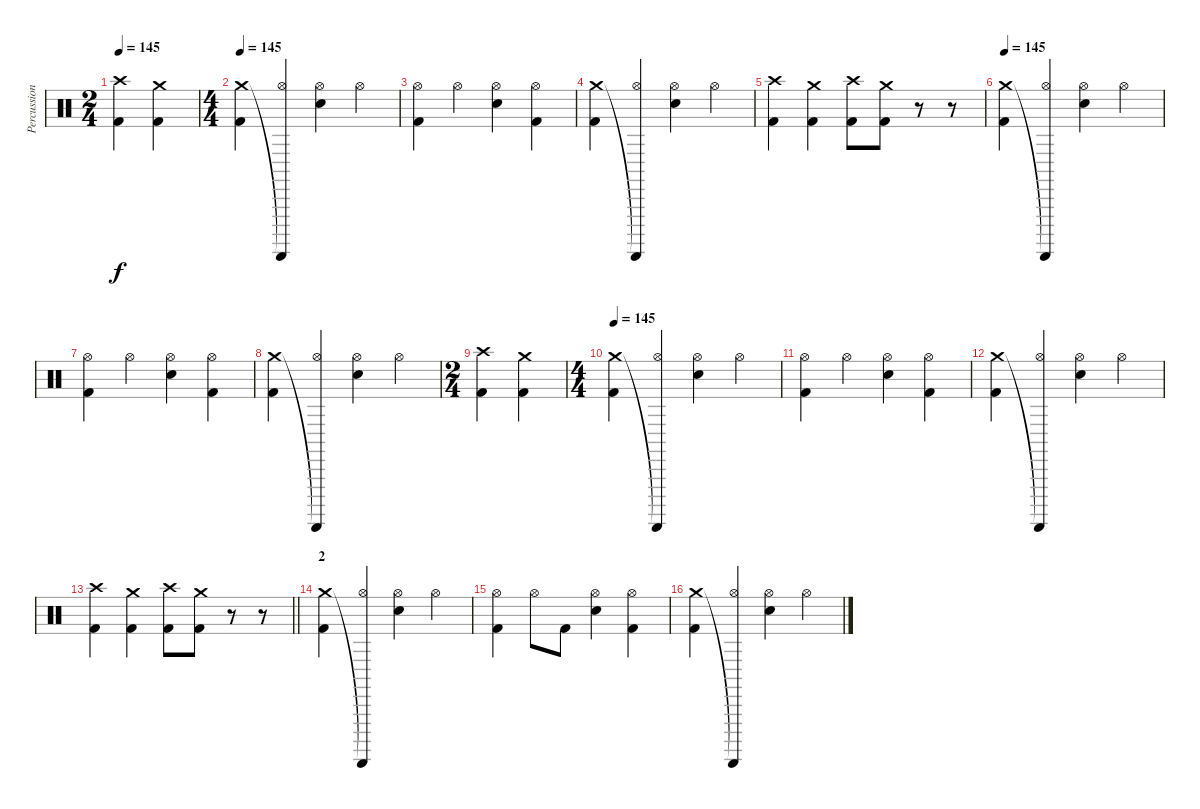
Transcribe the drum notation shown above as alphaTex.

\track ("Percussion" "Percussion") {instrument percussion}
\staff {score}
\articulation defaults
\ts (2 4)
\tempo 145
\clef neutral
\ks c
("Kick (hit) 2" "Crash high (hit)").4{dy f} ("Kick (hit) 2" "Crash medium (hit)").4 |
\ts (4 4)
\tempo 145
("Crash medium (hit)" "Kick (hit) 2").4 ("Guiro (scrap-return)"{t} "Hi-Hat (open)").4 ("Hi-Hat (open)" "Electric Snare (hit)").4 "Hi-Hat (open)".4 |
("Hi-Hat (open)" "Kick (hit) 2").4 "Hi-Hat (open)".4 ("Hi-Hat (open)" "Electric Snare (hit)").4 ("Hi-Hat (open)" "Kick (hit) 2").4 |
("Crash medium (hit)" "Kick (hit) 2").4 ("Guiro (scrap-return)"{t} "Hi-Hat (open)").4 ("Hi-Hat (open)" "Electric Snare (hit)").4 "Hi-Hat (open)".4 |
("Kick (hit) 2" "Crash high (hit)").4 ("Kick (hit) 2" "Crash medium (hit)").4 ("Kick (hit) 2" "Crash high (hit)").8 ("Kick (hit) 2" "Crash medium (hit)").8 r.8 r.8 |
\tempo 145
("Crash medium (hit)" "Kick (hit) 2").4 ("Guiro (scrap-return)"{t} "Hi-Hat (open)").4 ("Hi-Hat (open)" "Electric Snare (hit)").4 "Hi-Hat (open)".4 |
("Hi-Hat (open)" "Kick (hit) 2").4 "Hi-Hat (open)".4 ("Hi-Hat (open)" "Electric Snare (hit)").4 ("Hi-Hat (open)" "Kick (hit) 2").4 |
("Crash medium (hit)" "Kick (hit) 2").4 ("Guiro (scrap-return)"{t} "Hi-Hat (open)").4 ("Hi-Hat (open)" "Electric Snare (hit)").4 "Hi-Hat (open)".4 |
\ts (2 4)
("Kick (hit) 2" "Crash high (hit)").4 ("Kick (hit) 2" "Crash medium (hit)").4 |
\ts (4 4)
\tempo 145
("Crash medium (hit)" "Kick (hit) 2").4 ("Guiro (scrap-return)"{t} "Hi-Hat (open)").4 ("Hi-Hat (open)" "Electric Snare (hit)").4 "Hi-Hat (open)".4 |
("Hi-Hat (open)" "Kick (hit) 2").4 "Hi-Hat (open)".4 ("Hi-Hat (open)" "Electric Snare (hit)").4 ("Hi-Hat (open)" "Kick (hit) 2").4 |
("Crash medium (hit)" "Kick (hit) 2").4 ("Guiro (scrap-return)"{t} "Hi-Hat (open)").4 ("Hi-Hat (open)" "Electric Snare (hit)").4 "Hi-Hat (open)".4 |
\barLineRight lightlight
("Kick (hit) 2" "Crash high (hit)").4 ("Kick (hit) 2" "Crash medium (hit)").4 ("Kick (hit) 2" "Crash high (hit)").8 ("Kick (hit) 2" "Crash medium (hit)").8 r.8 r.8 |
\section ("" "2")
("Crash medium (hit)" "Kick (hit) 2").4 ("Guiro (scrap-return)"{t} "Hi-Hat (open)").4 ("Hi-Hat (open)" "Electric Snare (hit)").4 "Hi-Hat (open)".4 |
("Hi-Hat (open)" "Kick (hit) 2").4 "Hi-Hat (open)".8 "Kick (hit) 2".8 ("Hi-Hat (open)" "Electric Snare (hit)").4 ("Hi-Hat (open)" "Kick (hit) 2").4 |
("Crash medium (hit)" "Kick (hit) 2").4 ("Guiro (scrap-return)"{t} "Hi-Hat (open)").4 ("Hi-Hat (open)" "Electric Snare (hit)").4 "Hi-Hat (open)".4
